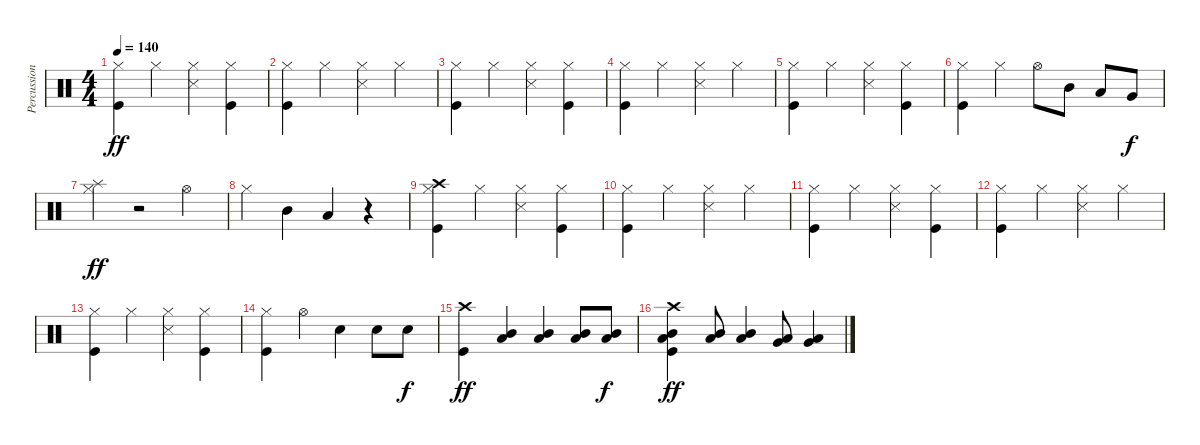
\track ("Percussions" "Percussion") {instrument percussion}
\staff {score}
\articulation defaults
\ts (4 4)
\tempo 140
\clef neutral
\ks c
("Kick (hit)" "Hi-Hat (closed)").4{dy ff} "Hi-Hat (closed)".4 ("Snare (side stick) 3" "Hi-Hat (closed)").4 ("Kick (hit)" "Hi-Hat (closed)").4 |
("Kick (hit)" "Hi-Hat (closed)").4 "Hi-Hat (closed)".4 ("Snare (side stick) 3" "Hi-Hat (closed)").4 "Hi-Hat (closed)".4 |
("Kick (hit)" "Hi-Hat (closed)").4 "Hi-Hat (closed)".4 ("Snare (side stick) 3" "Hi-Hat (closed)").4 ("Kick (hit)" "Hi-Hat (closed)").4 |
("Kick (hit)" "Hi-Hat (closed)").4 "Hi-Hat (closed)".4 ("Snare (side stick) 3" "Hi-Hat (closed)").4 "Hi-Hat (closed)".4 |
("Kick (hit)" "Hi-Hat (closed)").4 "Hi-Hat (closed)".4 ("Snare (side stick) 3" "Hi-Hat (closed)").4 ("Kick (hit)" "Hi-Hat (closed)").4 |
("Kick (hit)" "Hi-Hat (closed)").4 "Hi-Hat (closed)".4 "Hi-Hat (open)".8 "Mid Tom (hit)".8{volume 8} "Low Tom (hit)".8 "Very Low Tom (hit)".8{dy f} |
("Hi-Hat (closed)" "Splash (hit)").4{dy ff} r.2 "Hi-Hat (open)".4{volume 16} |
"Hi-Hat (closed)".4{volume 8} "Mid Tom (hit)".4{volume 16} "Low Tom (hit)".4 r.4 |
("Kick (hit)" "Hi-Hat (closed)" "Crash high (hit)").4{volume 12} "Hi-Hat (closed)".4 ("Snare (side stick) 3" "Hi-Hat (closed)").4{volume 16} ("Kick (hit)" "Hi-Hat (closed)").4 |
("Kick (hit)" "Hi-Hat (closed)").4 "Hi-Hat (closed)".4 ("Snare (side stick) 3" "Hi-Hat (closed)").4 "Hi-Hat (closed)".4 |
("Kick (hit)" "Hi-Hat (closed)").4 "Hi-Hat (closed)".4 ("Snare (side stick) 3" "Hi-Hat (closed)").4 ("Kick (hit)" "Hi-Hat (closed)").4 |
("Kick (hit)" "Hi-Hat (closed)").4 "Hi-Hat (closed)".4 ("Snare (side stick) 3" "Hi-Hat (closed)").4 "Hi-Hat (closed)".4 |
("Kick (hit)" "Hi-Hat (closed)").4 "Hi-Hat (closed)".4 ("Snare (side stick) 3" "Hi-Hat (closed)").4 ("Kick (hit)" "Hi-Hat (closed)").4 |
("Kick (hit)" "Hi-Hat (closed)").4 "Hi-Hat (open)".4 "Snare (hit) 2".4 "Snare (hit) 2".8 "Snare (hit) 2".8{dy f} |
("Kick (hit)" "Crash high (hit)").4{dy ff} ("Low Tom (hit)" "Mid Tom (hit)").4{volume 8} ("Low Tom (hit)" "Mid Tom (hit)").4{volume 10} ("Low Tom (hit)" "Mid Tom (hit)").8{volume 12} ("Low Tom (hit)" "Mid Tom (hit)").8{dy f volume 13} |
("Kick (hit)" "Low Tom (hit)" "Mid Tom (hit)" "Crash high (hit)").4{dy ff volume 14} ("Low Tom (hit)" "Mid Tom (hit)").8{volume 16} ("Low Tom (hit)" "Mid Tom (hit)").4 ("Very Low Tom (hit)" "Low Tom (hit)").8 ("Low Floor Tom (hit)" "Very Low Tom (hit)").4
